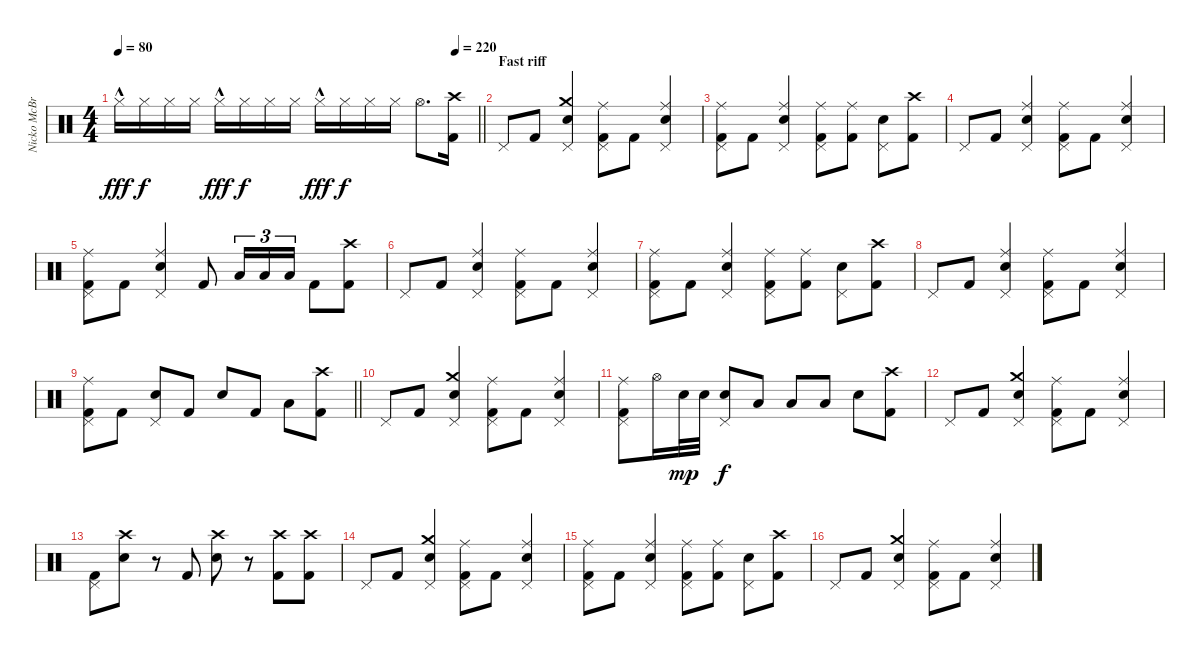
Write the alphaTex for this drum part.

\track ("Nicko McBrain" "Nicko McBr") {instrument percussion}
\staff {score}
\articulation defaults
\ts (4 4)
\tempo 80
\tempo (220 0.9375)
\clef neutral
\barLineRight lightlight
\ks c "Hi-Hat (closed)"{hac}.16{dy fff} "Hi-Hat (closed)".16{dy f} "Hi-Hat (closed)".16 "Hi-Hat (closed)".16 "Hi-Hat (closed)"{hac}.16{dy fff} "Hi-Hat (closed)".16{dy f} "Hi-Hat (closed)".16 "Hi-Hat (closed)".16 "Hi-Hat (closed)"{hac}.16{dy fff} "Hi-Hat (closed)".16{dy f} "Hi-Hat (closed)".16 "Hi-Hat (closed)".16 "Hi-Hat (open)".8{d}
("Crash high (hit)" "Kick (hit) 2").16 |
\section ("" "Fast riff")
"Pedal Hi-Hat (hit)".8 "Kick (hit) 2".8 ("Crash medium (hit)" "Snare (hit) 2" "Pedal Hi-Hat (hit)").4 ("Ride (middle)" "Pedal Hi-Hat (hit)" "Kick (hit) 2").8 "Kick (hit) 2".8 ("Ride (middle)" "Snare (hit) 2" "Pedal Hi-Hat (hit)").4 |
("Ride (middle)" "Pedal Hi-Hat (hit)" "Kick (hit) 2").8 "Kick (hit) 2".8 ("Ride (middle)" "Snare (hit) 2" "Pedal Hi-Hat (hit)").4 ("Ride (middle)" "Pedal Hi-Hat (hit)" "Kick (hit) 2").8 ("Ride (middle)" "Kick (hit) 2").8 ("Snare (hit) 2" "Pedal Hi-Hat (hit)").8 ("Crash high (hit)" "Kick (hit) 2").8 |
"Pedal Hi-Hat (hit)".8 "Kick (hit) 2".8 ("Ride (middle)" "Snare (hit) 2" "Pedal Hi-Hat (hit)").4 ("Ride (middle)" "Pedal Hi-Hat (hit)" "Kick (hit) 2").8 "Kick (hit) 2".8 ("Ride (middle)" "Snare (hit) 2" "Pedal Hi-Hat (hit)").4 |
("Ride (middle)" "Pedal Hi-Hat (hit)" "Kick (hit) 2").8 "Kick (hit) 2".8 ("Ride (middle)" "Snare (hit) 2" "Pedal Hi-Hat (hit)").4 "Kick (hit) 2".8 "Low Tom (hit)".16{tu (3 2)} "Low Tom (hit)".16{tu (3 2)} "Low Floor Tom (hit)".16{tu (3 2)} "Kick (hit) 2".8 ("Crash high (hit)" "Kick (hit) 2").8 |
"Pedal Hi-Hat (hit)".8 "Kick (hit) 2".8 ("Ride (middle)" "Snare (hit) 2" "Pedal Hi-Hat (hit)").4 ("Ride (middle)" "Pedal Hi-Hat (hit)" "Kick (hit) 2").8 "Kick (hit) 2".8 ("Ride (middle)" "Snare (hit) 2" "Pedal Hi-Hat (hit)").4 |
("Ride (middle)" "Pedal Hi-Hat (hit)" "Kick (hit) 2").8 "Kick (hit) 2".8 ("Ride (middle)" "Snare (hit) 2" "Pedal Hi-Hat (hit)").4 ("Ride (middle)" "Pedal Hi-Hat (hit)" "Kick (hit) 2").8 ("Ride (middle)" "Kick (hit) 2").8 ("Snare (hit) 2" "Pedal Hi-Hat (hit)").8 ("Crash high (hit)" "Kick (hit) 2").8 |
"Pedal Hi-Hat (hit)".8 "Kick (hit) 2".8 ("Ride (middle)" "Snare (hit) 2" "Pedal Hi-Hat (hit)").4 ("Ride (middle)" "Pedal Hi-Hat (hit)" "Kick (hit) 2").8 "Kick (hit) 2".8 ("Ride (middle)" "Snare (hit) 2" "Pedal Hi-Hat (hit)").4 |
\barLineRight lightlight
("Ride (middle)" "Pedal Hi-Hat (hit)" "Kick (hit) 2").8 "Kick (hit) 2".8 ("Snare (hit) 2" "Pedal Hi-Hat (hit)").8 "Kick (hit) 2".8 "Snare (hit) 2".8 "Kick (hit) 2".8 "Low Floor Tom (hit)".8 ("Crash high (hit)" "Kick (hit) 2").8 |
"Pedal Hi-Hat (hit)".8 "Kick (hit) 2".8 ("Crash medium (hit)" "Snare (hit) 2" "Pedal Hi-Hat (hit)").4 ("Ride (middle)" "Pedal Hi-Hat (hit)" "Kick (hit) 2").8 "Kick (hit) 2".8 ("Ride (middle)" "Snare (hit) 2" "Pedal Hi-Hat (hit)").4 |
("Ride (middle)" "Pedal Hi-Hat (hit)" "Kick (hit) 2").8 "Hi-Hat (open)".16 "Snare (hit) 2".32{dy mp} "Snare (hit) 2".32 ("Snare (hit) 2" "Pedal Hi-Hat (hit)").8{dy f} "Low Floor Tom (hit)".8 "Low Floor Tom (hit)".8 "Low Floor Tom (hit)".8 "Snare (hit) 2".8 ("Crash high (hit)" "Kick (hit) 2").8 |
"Pedal Hi-Hat (hit)".8 "Kick (hit) 2".8 ("Crash medium (hit)" "Snare (hit) 2" "Pedal Hi-Hat (hit)").4 ("Ride (middle)" "Pedal Hi-Hat (hit)" "Kick (hit) 2").8 "Kick (hit) 2".8 ("Ride (middle)" "Snare (hit) 2" "Pedal Hi-Hat (hit)").4 |
("Pedal Hi-Hat (hit)" "Kick (hit) 2").8 ("Crash high (hit)" "Snare (hit) 2").8 r.8 "Kick (hit) 2".8 ("Crash high (hit)" "Snare (hit) 2").8 r.8 ("Crash high (hit)" "Kick (hit) 2").8 ("Crash high (hit)" "Kick (hit) 2").8 |
"Pedal Hi-Hat (hit)".8 "Kick (hit) 2".8 ("Crash medium (hit)" "Snare (hit) 2" "Pedal Hi-Hat (hit)").4 ("Ride (middle)" "Pedal Hi-Hat (hit)" "Kick (hit) 2").8 "Kick (hit) 2".8 ("Ride (middle)" "Snare (hit) 2" "Pedal Hi-Hat (hit)").4 |
("Ride (middle)" "Pedal Hi-Hat (hit)" "Kick (hit) 2").8 "Kick (hit) 2".8 ("Ride (middle)" "Snare (hit) 2" "Pedal Hi-Hat (hit)").4 ("Ride (middle)" "Pedal Hi-Hat (hit)" "Kick (hit) 2").8 ("Ride (middle)" "Kick (hit) 2").8 ("Snare (hit) 2" "Pedal Hi-Hat (hit)").8 ("Crash high (hit)" "Kick (hit) 2").8 |
"Pedal Hi-Hat (hit)".8 "Kick (hit) 2".8 ("Crash medium (hit)" "Snare (hit) 2" "Pedal Hi-Hat (hit)").4 ("Ride (middle)" "Pedal Hi-Hat (hit)" "Kick (hit) 2").8 "Kick (hit) 2".8 ("Ride (middle)" "Snare (hit) 2" "Pedal Hi-Hat (hit)").4
